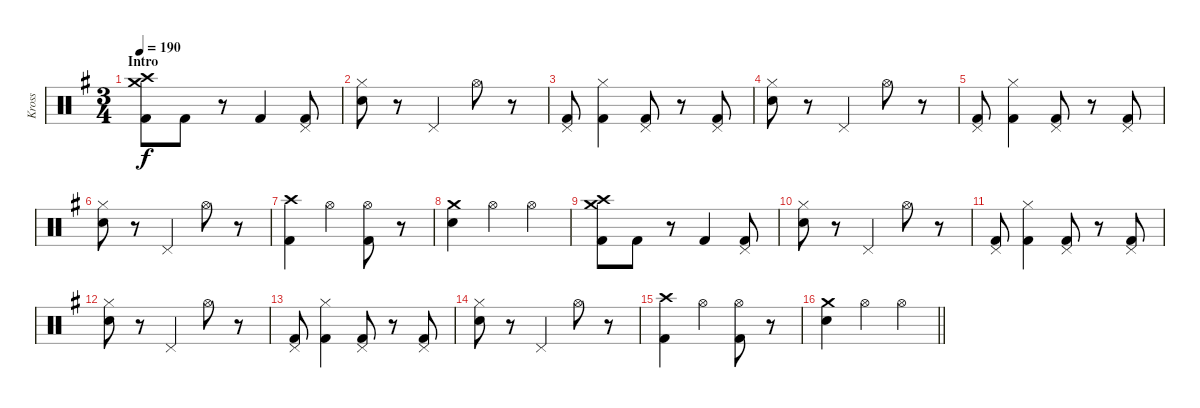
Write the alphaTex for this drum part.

\track ("Kross" "Kross") {instrument percussion}
\staff {score}
\articulation defaults
\ts (3 4)
\section ("" "Intro")
\tempo 190
\clef neutral
\ks g
("Crash medium (hit)" "Crash high (hit)" "Kick (hit) 2").8{dy f} "Kick (hit) 2".8 r.8 "Kick (hit) 2".4 ("Pedal Hi-Hat (hit)" "Kick (hit) 2").8 |
("Hi-Hat (closed)" "Snare (hit) 2").8 r.8 "Pedal Hi-Hat (hit)".4 "Hi-Hat (open)".8 r.8 |
("Pedal Hi-Hat (hit)" "Kick (hit) 2").8 ("Hi-Hat (closed)" "Kick (hit) 2").4 ("Pedal Hi-Hat (hit)" "Kick (hit) 2").8 r.8 ("Pedal Hi-Hat (hit)" "Kick (hit) 2").8 |
("Hi-Hat (closed)" "Snare (hit) 2").8 r.8 "Pedal Hi-Hat (hit)".4 "Hi-Hat (open)".8 r.8 |
("Pedal Hi-Hat (hit)" "Kick (hit) 2").8 ("Hi-Hat (closed)" "Kick (hit) 2").4 ("Pedal Hi-Hat (hit)" "Kick (hit) 2").8 r.8 ("Pedal Hi-Hat (hit)" "Kick (hit) 2").8 |
("Hi-Hat (closed)" "Snare (hit) 2").8 r.8 "Pedal Hi-Hat (hit)".4 "Hi-Hat (open)".8 r.8 |
("Crash high (hit)" "Kick (hit) 2").4 "Hi-Hat (open)".4 ("Hi-Hat (open)" "Kick (hit) 2").8 r.8 |
("Crash medium (hit)" "Snare (hit) 2").4 "Hi-Hat (open)".4 "Hi-Hat (open)".4 |
("Crash medium (hit)" "Crash high (hit)" "Kick (hit) 2").8 "Kick (hit) 2".8 r.8 "Kick (hit) 2".4 ("Pedal Hi-Hat (hit)" "Kick (hit) 2").8 |
("Hi-Hat (closed)" "Snare (hit) 2").8 r.8 "Pedal Hi-Hat (hit)".4 "Hi-Hat (open)".8 r.8 |
("Pedal Hi-Hat (hit)" "Kick (hit) 2").8 ("Hi-Hat (closed)" "Kick (hit) 2").4 ("Pedal Hi-Hat (hit)" "Kick (hit) 2").8 r.8 ("Pedal Hi-Hat (hit)" "Kick (hit) 2").8 |
("Hi-Hat (closed)" "Snare (hit) 2").8 r.8 "Pedal Hi-Hat (hit)".4 "Hi-Hat (open)".8 r.8 |
("Pedal Hi-Hat (hit)" "Kick (hit) 2").8 ("Hi-Hat (closed)" "Kick (hit) 2").4 ("Pedal Hi-Hat (hit)" "Kick (hit) 2").8 r.8 ("Pedal Hi-Hat (hit)" "Kick (hit) 2").8 |
("Hi-Hat (closed)" "Snare (hit) 2").8 r.8 "Pedal Hi-Hat (hit)".4 "Hi-Hat (open)".8 r.8 |
("Crash high (hit)" "Kick (hit) 2").4 "Hi-Hat (open)".4 ("Hi-Hat (open)" "Kick (hit) 2").8 r.8 |
\barLineRight lightlight
("Crash medium (hit)" "Snare (hit) 2").4 "Hi-Hat (open)".4 "Hi-Hat (open)".4
